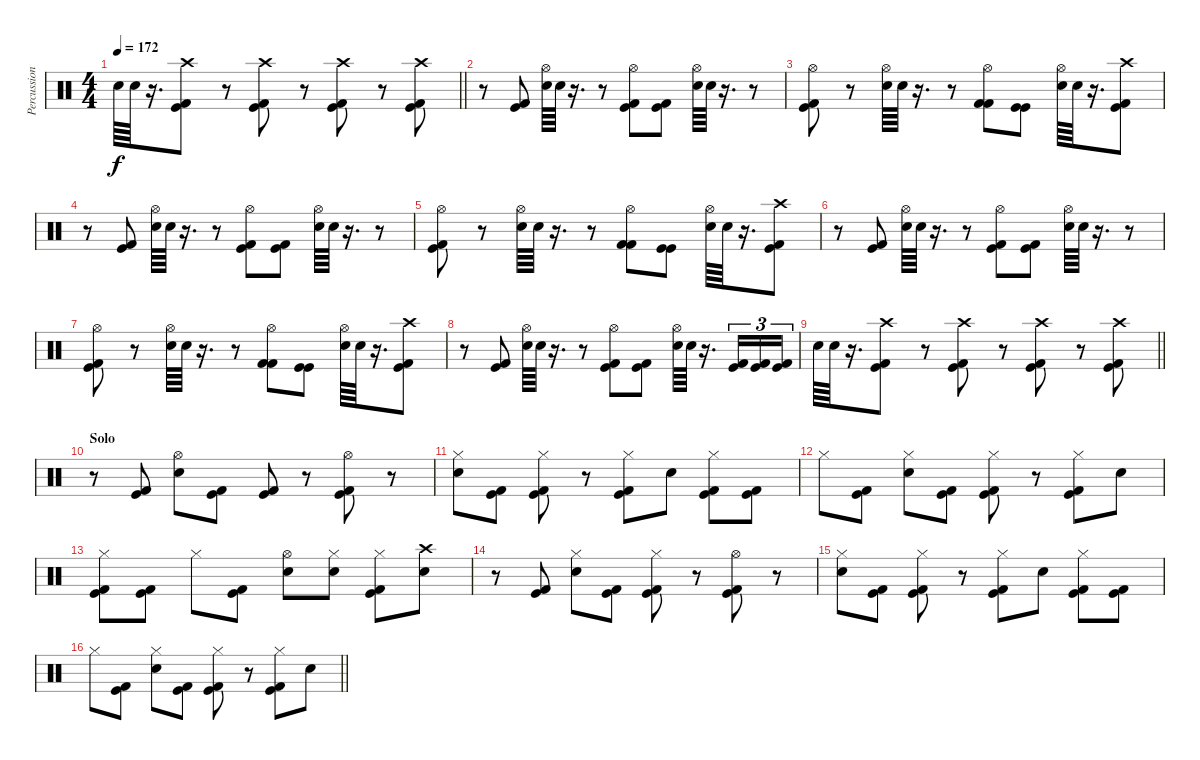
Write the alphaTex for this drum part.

\track ("Percussion" "Percussion") {instrument percussion}
\staff {score}
\articulation defaults
\ts (4 4)
\tempo 172
\clef neutral
\barLineRight lightlight
\ks c "Snare (hit) 2".64{dy f} "Snare (hit) 2".64
r.16{d} ("Crash high (hit)" "Kick (hit)" "Kick (hit) 2").8 r.8 ("Crash high (hit)" "Kick (hit)" "Kick (hit) 2").8 r.8 ("Crash high (hit)" "Kick (hit)" "Kick (hit) 2").8 r.8 ("Crash high (hit)" "Kick (hit)" "Kick (hit) 2").8 |
r.8 ("Kick (hit)" "Kick (hit) 2").8 ("Hi-Hat (open)" "Snare (hit) 2").64 "Snare (hit) 2".64 r.16{d} r.8 ("Hi-Hat (open)" "Kick (hit)" "Kick (hit) 2").8 ("Kick (hit)" "Kick (hit) 2").8 ("Hi-Hat (open)" "Snare (hit) 2").64 "Snare (hit) 2".64 r.16{d} r.8 |
("Hi-Hat (open)" "Kick (hit)" "Kick (hit) 2").8 r.8 ("Hi-Hat (open)" "Snare (hit) 2").64 "Snare (hit) 2".64 r.16{d} r.8 ("Hi-Hat (open)" "Kick (hit) 2" "Kick (hit) 2").8 ("Kick (hit)" "Kick (hit)").8 ("Hi-Hat (open)" "Snare (hit) 2").64 "Snare (hit) 2".64 r.16{d} ("Crash high (hit)" "Kick (hit)" "Kick (hit) 2").8 |
r.8 ("Kick (hit)" "Kick (hit) 2").8 ("Hi-Hat (open)" "Snare (hit) 2").64 "Snare (hit) 2".64 r.16{d} r.8 ("Hi-Hat (open)" "Kick (hit)" "Kick (hit) 2").8 ("Kick (hit)" "Kick (hit) 2").8 ("Hi-Hat (open)" "Snare (hit) 2").64 "Snare (hit) 2".64 r.16{d} r.8 |
("Hi-Hat (open)" "Kick (hit)" "Kick (hit) 2").8 r.8 ("Hi-Hat (open)" "Snare (hit) 2").64 "Snare (hit) 2".64 r.16{d} r.8 ("Hi-Hat (open)" "Kick (hit) 2" "Kick (hit) 2").8 ("Kick (hit)" "Kick (hit)").8 ("Hi-Hat (open)" "Snare (hit) 2").64 "Snare (hit) 2".64 r.16{d} ("Crash high (hit)" "Kick (hit)" "Kick (hit) 2").8 |
r.8 ("Kick (hit)" "Kick (hit) 2").8 ("Hi-Hat (open)" "Snare (hit) 2").64 "Snare (hit) 2".64 r.16{d} r.8 ("Hi-Hat (open)" "Kick (hit)" "Kick (hit) 2").8 ("Kick (hit)" "Kick (hit) 2").8 ("Hi-Hat (open)" "Snare (hit) 2").64 "Snare (hit) 2".64 r.16{d} r.8 |
("Hi-Hat (open)" "Kick (hit)" "Kick (hit) 2").8 r.8 ("Hi-Hat (open)" "Snare (hit) 2").64 "Snare (hit) 2".64 r.16{d} r.8 ("Hi-Hat (open)" "Kick (hit) 2" "Kick (hit) 2").8 ("Kick (hit)" "Kick (hit)").8 ("Hi-Hat (open)" "Snare (hit) 2").64 "Snare (hit) 2".64 r.16{d} ("Crash high (hit)" "Kick (hit)" "Kick (hit) 2").8 |
r.8 ("Kick (hit)" "Kick (hit) 2").8 ("Hi-Hat (open)" "Snare (hit) 2").64 "Snare (hit) 2".64 r.16{d} r.8 ("Hi-Hat (open)" "Kick (hit)" "Kick (hit) 2").8 ("Kick (hit)" "Kick (hit) 2").8 ("Hi-Hat (open)" "Snare (hit) 2").64 "Snare (hit) 2".64 r.16{d} ("Kick (hit)" "Kick (hit) 2").16{tu (3 2)} ("Kick (hit)" "Kick (hit) 2").16{tu (3 2)} ("Kick (hit)" "Kick (hit) 2").16{tu (3 2)} |
\barLineRight lightlight "Snare (hit) 2".64 "Snare (hit) 2".64
r.16{d} ("Crash high (hit)" "Kick (hit)" "Kick (hit) 2").8 r.8 ("Crash high (hit)" "Kick (hit)" "Kick (hit) 2").8 r.8 ("Crash high (hit)" "Kick (hit)" "Kick (hit) 2").8 r.8 ("Crash high (hit)" "Kick (hit)" "Kick (hit) 2").8 |
\section ("" "Solo")
r.8 ("Kick (hit)" "Kick (hit) 2").8 ("Hi-Hat (open)" "Snare (hit) 2").8 ("Kick (hit)" "Kick (hit) 2").8 ("Kick (hit)" "Kick (hit) 2").8 r.8 ("Hi-Hat (open)" "Kick (hit)" "Kick (hit) 2").8 r.8 |
("Hi-Hat (closed)" "Snare (hit) 2").8 ("Kick (hit)" "Kick (hit) 2").8 ("Hi-Hat (closed)" "Kick (hit)" "Kick (hit) 2").8 r.8 ("Hi-Hat (closed)" "Kick (hit)" "Kick (hit) 2").8 "Snare (hit) 2".8 ("Hi-Hat (closed)" "Kick (hit)" "Kick (hit) 2").8 ("Kick (hit)" "Kick (hit) 2").8 |
"Hi-Hat (closed)".8 ("Kick (hit)" "Kick (hit) 2").8 ("Hi-Hat (closed)" "Snare (hit) 2").8 ("Kick (hit)" "Kick (hit) 2").8 ("Hi-Hat (closed)" "Kick (hit)" "Kick (hit) 2").8 r.8 ("Hi-Hat (closed)" "Kick (hit)" "Kick (hit) 2").8 "Snare (hit) 2".8 |
("Hi-Hat (closed)" "Kick (hit)" "Kick (hit) 2").8 ("Kick (hit)" "Kick (hit) 2").8 "Hi-Hat (closed)".8 ("Kick (hit)" "Kick (hit) 2").8 ("Hi-Hat (open)" "Snare (hit) 2").8 ("Hi-Hat (closed)" "Snare (hit) 2").8 ("Hi-Hat (closed)" "Kick (hit)" "Kick (hit) 2").8 ("Crash high (hit)" "Snare (hit) 2").8 |
r.8 ("Kick (hit)" "Kick (hit) 2").8 ("Hi-Hat (closed)" "Snare (hit) 2").8 ("Kick (hit)" "Kick (hit) 2").8 ("Hi-Hat (closed)" "Kick (hit)" "Kick (hit) 2").8 r.8 ("Hi-Hat (open)" "Kick (hit)" "Kick (hit) 2").8 r.8 |
("Hi-Hat (closed)" "Snare (hit) 2").8 ("Kick (hit)" "Kick (hit) 2").8 ("Hi-Hat (closed)" "Kick (hit)" "Kick (hit) 2").8 r.8 ("Hi-Hat (closed)" "Kick (hit)" "Kick (hit) 2").8 "Snare (hit) 2".8 ("Hi-Hat (closed)" "Kick (hit)" "Kick (hit) 2").8 ("Kick (hit)" "Kick (hit) 2").8 |
\barLineRight lightlight "Hi-Hat (closed)".8
("Kick (hit)" "Kick (hit) 2").8 ("Hi-Hat (closed)" "Snare (hit) 2").8 ("Kick (hit)" "Kick (hit) 2").8 ("Hi-Hat (closed)" "Kick (hit)" "Kick (hit) 2").8 r.8 ("Hi-Hat (closed)" "Kick (hit)" "Kick (hit) 2").8 "Snare (hit) 2".8
